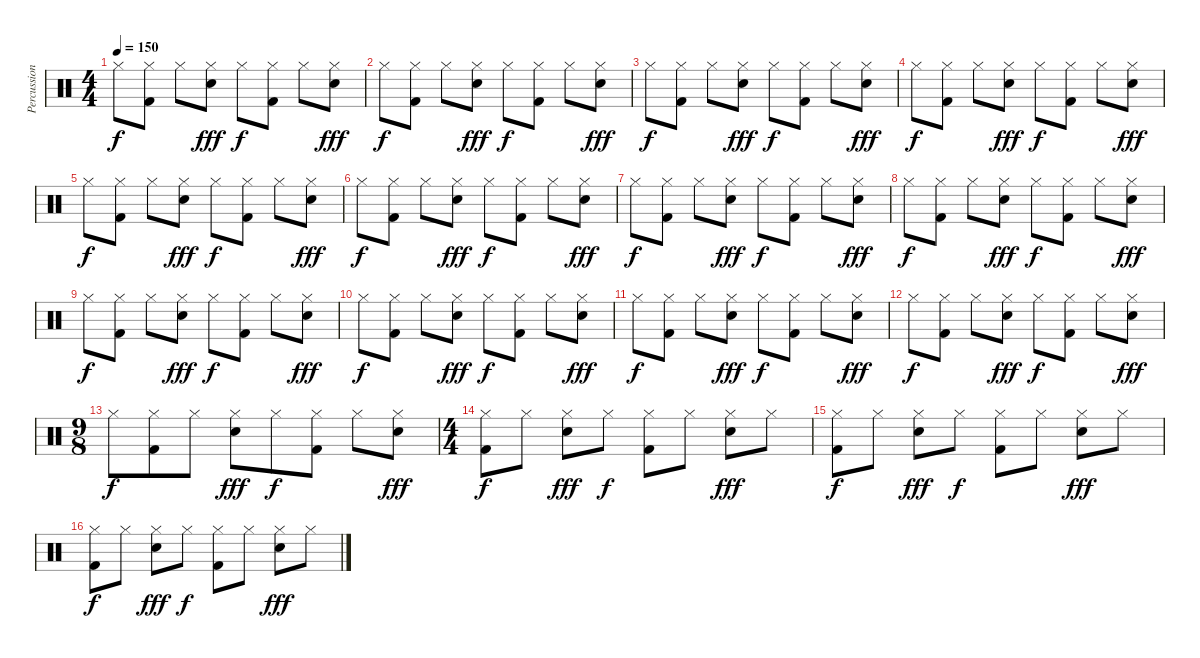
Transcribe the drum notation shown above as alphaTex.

\track ("Percussion" "Percussion") {instrument percussion}
\staff {score}
\articulation defaults
\ts (4 4)
\tempo 150
\clef neutral
\ks c "Hi-Hat (closed)".8{dy f}
("Hi-Hat (closed)" "Kick (hit) 2").8 "Hi-Hat (closed)".8 ("Hi-Hat (closed)" "Electric Snare (hit)").8{dy fff} "Hi-Hat (closed)".8{dy f} ("Hi-Hat (closed)" "Kick (hit) 2").8 "Hi-Hat (closed)".8 ("Hi-Hat (closed)" "Electric Snare (hit)").8{dy fff} |
"Hi-Hat (closed)".8{dy f} ("Hi-Hat (closed)" "Kick (hit) 2").8 "Hi-Hat (closed)".8 ("Hi-Hat (closed)" "Electric Snare (hit)").8{dy fff} "Hi-Hat (closed)".8{dy f} ("Hi-Hat (closed)" "Kick (hit) 2").8 "Hi-Hat (closed)".8 ("Hi-Hat (closed)" "Electric Snare (hit)").8{dy fff} |
"Hi-Hat (closed)".8{dy f} ("Hi-Hat (closed)" "Kick (hit) 2").8 "Hi-Hat (closed)".8 ("Hi-Hat (closed)" "Electric Snare (hit)").8{dy fff} "Hi-Hat (closed)".8{dy f} ("Hi-Hat (closed)" "Kick (hit) 2").8 "Hi-Hat (closed)".8 ("Hi-Hat (closed)" "Electric Snare (hit)").8{dy fff} |
"Hi-Hat (closed)".8{dy f} ("Hi-Hat (closed)" "Kick (hit) 2").8 "Hi-Hat (closed)".8 ("Hi-Hat (closed)" "Electric Snare (hit)").8{dy fff} "Hi-Hat (closed)".8{dy f} ("Hi-Hat (closed)" "Kick (hit) 2").8 "Hi-Hat (closed)".8 ("Hi-Hat (closed)" "Electric Snare (hit)").8{dy fff} |
"Hi-Hat (closed)".8{dy f} ("Hi-Hat (closed)" "Kick (hit) 2").8 "Hi-Hat (closed)".8 ("Hi-Hat (closed)" "Electric Snare (hit)").8{dy fff} "Hi-Hat (closed)".8{dy f} ("Hi-Hat (closed)" "Kick (hit) 2").8 "Hi-Hat (closed)".8 ("Hi-Hat (closed)" "Electric Snare (hit)").8{dy fff} |
"Hi-Hat (closed)".8{dy f} ("Hi-Hat (closed)" "Kick (hit) 2").8 "Hi-Hat (closed)".8 ("Hi-Hat (closed)" "Electric Snare (hit)").8{dy fff} "Hi-Hat (closed)".8{dy f} ("Hi-Hat (closed)" "Kick (hit) 2").8 "Hi-Hat (closed)".8 ("Hi-Hat (closed)" "Electric Snare (hit)").8{dy fff} |
"Hi-Hat (closed)".8{dy f} ("Hi-Hat (closed)" "Kick (hit) 2").8 "Hi-Hat (closed)".8 ("Hi-Hat (closed)" "Electric Snare (hit)").8{dy fff} "Hi-Hat (closed)".8{dy f} ("Hi-Hat (closed)" "Kick (hit) 2").8 "Hi-Hat (closed)".8 ("Hi-Hat (closed)" "Electric Snare (hit)").8{dy fff} |
"Hi-Hat (closed)".8{dy f} ("Hi-Hat (closed)" "Kick (hit) 2").8 "Hi-Hat (closed)".8 ("Hi-Hat (closed)" "Electric Snare (hit)").8{dy fff} "Hi-Hat (closed)".8{dy f} ("Hi-Hat (closed)" "Kick (hit) 2").8 "Hi-Hat (closed)".8 ("Hi-Hat (closed)" "Electric Snare (hit)").8{dy fff} |
"Hi-Hat (closed)".8{dy f} ("Hi-Hat (closed)" "Kick (hit) 2").8 "Hi-Hat (closed)".8 ("Hi-Hat (closed)" "Electric Snare (hit)").8{dy fff} "Hi-Hat (closed)".8{dy f} ("Hi-Hat (closed)" "Kick (hit) 2").8 "Hi-Hat (closed)".8 ("Hi-Hat (closed)" "Electric Snare (hit)").8{dy fff} |
"Hi-Hat (closed)".8{dy f} ("Hi-Hat (closed)" "Kick (hit) 2").8 "Hi-Hat (closed)".8 ("Hi-Hat (closed)" "Electric Snare (hit)").8{dy fff} "Hi-Hat (closed)".8{dy f} ("Hi-Hat (closed)" "Kick (hit) 2").8 "Hi-Hat (closed)".8 ("Hi-Hat (closed)" "Electric Snare (hit)").8{dy fff} |
"Hi-Hat (closed)".8{dy f} ("Hi-Hat (closed)" "Kick (hit) 2").8 "Hi-Hat (closed)".8 ("Hi-Hat (closed)" "Electric Snare (hit)").8{dy fff} "Hi-Hat (closed)".8{dy f} ("Hi-Hat (closed)" "Kick (hit) 2").8 "Hi-Hat (closed)".8 ("Hi-Hat (closed)" "Electric Snare (hit)").8{dy fff} |
"Hi-Hat (closed)".8{dy f} ("Hi-Hat (closed)" "Kick (hit) 2").8 "Hi-Hat (closed)".8 ("Hi-Hat (closed)" "Electric Snare (hit)").8{dy fff} "Hi-Hat (closed)".8{dy f} ("Hi-Hat (closed)" "Kick (hit) 2").8 "Hi-Hat (closed)".8 ("Hi-Hat (closed)" "Electric Snare (hit)").8{dy fff} |
\ts (9 8)
"Hi-Hat (closed)".8{dy f} ("Hi-Hat (closed)" "Kick (hit) 2").8 "Hi-Hat (closed)".8 ("Hi-Hat (closed)" "Electric Snare (hit)").8{dy fff} "Hi-Hat (closed)".8{dy f} ("Hi-Hat (closed)" "Kick (hit) 2").8 "Hi-Hat (closed)".8 ("Hi-Hat (closed)" "Electric Snare (hit)").8{dy fff} |
\ts (4 4)
("Hi-Hat (closed)" "Kick (hit) 2").8{dy f} "Hi-Hat (closed)".8 ("Hi-Hat (closed)" "Electric Snare (hit)").8{dy fff} "Hi-Hat (closed)".8{dy f} ("Hi-Hat (closed)" "Kick (hit) 2").8 "Hi-Hat (closed)".8 ("Hi-Hat (closed)" "Electric Snare (hit)").8{dy fff} "Hi-Hat (closed)".8 |
("Hi-Hat (closed)" "Kick (hit) 2").8{dy f} "Hi-Hat (closed)".8 ("Hi-Hat (closed)" "Electric Snare (hit)").8{dy fff} "Hi-Hat (closed)".8{dy f} ("Hi-Hat (closed)" "Kick (hit) 2").8 "Hi-Hat (closed)".8 ("Hi-Hat (closed)" "Electric Snare (hit)").8{dy fff} "Hi-Hat (closed)".8 |
("Hi-Hat (closed)" "Kick (hit) 2").8{dy f} "Hi-Hat (closed)".8 ("Hi-Hat (closed)" "Electric Snare (hit)").8{dy fff} "Hi-Hat (closed)".8{dy f} ("Hi-Hat (closed)" "Kick (hit) 2").8 "Hi-Hat (closed)".8 ("Hi-Hat (closed)" "Electric Snare (hit)").8{dy fff} "Hi-Hat (closed)".8
